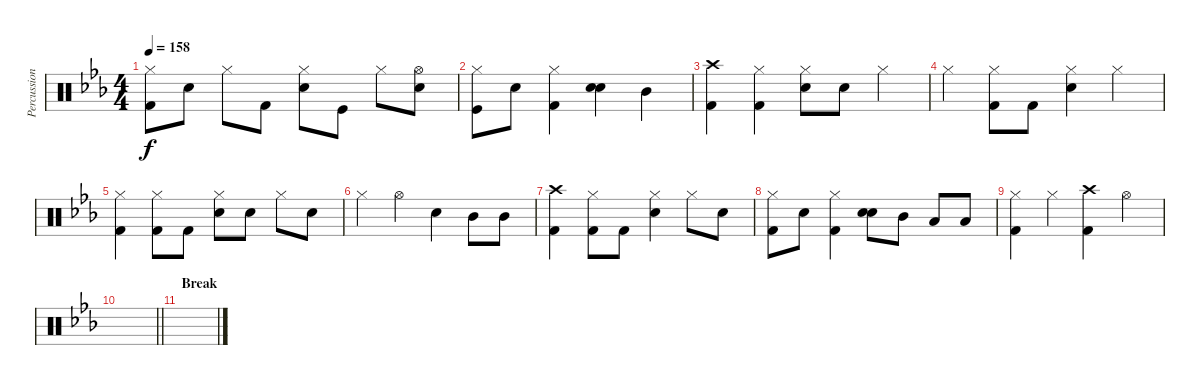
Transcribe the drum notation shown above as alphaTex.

\track ("Percussion" "Percussion") {instrument percussion}
\staff {score}
\articulation defaults
\ts (4 4)
\tempo 158
\clef neutral
\ks eb
("Hi-Hat (closed)" "Kick (hit) 2").8{dy f} "Snare (hit) 2".8 "Hi-Hat (closed)".8 "Kick (hit) 2".8 ("Hi-Hat (closed)" "Snare (hit) 2").8 "Kick (hit)".8 "Hi-Hat (closed)".8 ("Hi-Hat (open)" "Snare (hit) 2").8 |
("Hi-Hat (closed)" "Kick (hit)").8 "Snare (hit) 2".8 ("Hi-Hat (closed)" "Kick (hit) 2").4 ("Snare (hit) 2" "Snare (hit) 2").4 "Mid Tom (hit)".4 |
("Crash high (hit)" "Kick (hit) 2").4 ("Hi-Hat (closed)" "Kick (hit) 2").4 ("Hi-Hat (closed)" "Snare (hit) 2").8 "Snare (hit) 2".8 "Hi-Hat (closed)".4 |
"Hi-Hat (closed)".4 ("Hi-Hat (closed)" "Kick (hit) 2").8 "Kick (hit) 2".8 ("Hi-Hat (closed)" "Snare (hit) 2").4 "Hi-Hat (closed)".4 |
("Hi-Hat (closed)" "Kick (hit) 2").4 ("Hi-Hat (closed)" "Kick (hit) 2").8 "Kick (hit) 2".8 ("Hi-Hat (closed)" "Snare (hit) 2").8 "Snare (hit) 2".8 "Hi-Hat (closed)".8 "Snare (hit) 2".8 |
"Hi-Hat (closed)".4 "Hi-Hat (open)".4 "Snare (hit) 2".4 "Mid Tom (hit)".8 "Mid Tom (hit)".8 |
("Crash high (hit)" "Kick (hit) 2").4 ("Hi-Hat (closed)" "Kick (hit) 2").8 "Kick (hit) 2".8 ("Hi-Hat (closed)" "Snare (hit) 2").4 "Hi-Hat (closed)".8 "Snare (hit) 2".8 |
("Hi-Hat (closed)" "Kick (hit) 2").8 "Snare (hit) 2".8 ("Hi-Hat (closed)" "Kick (hit) 2").4 ("Snare (hit) 2" "Snare (hit) 2").8 "Mid Tom (hit)".8 "Low Tom (hit)".8 "Low Tom (hit)".8 |
("Hi-Hat (closed)" "Kick (hit) 2").4 "Hi-Hat (closed)".4 ("Crash high (hit)" "Kick (hit) 2").4 "Hi-Hat (open)".4 |
\barLineRight lightlight
|
\section ("" "Break")
